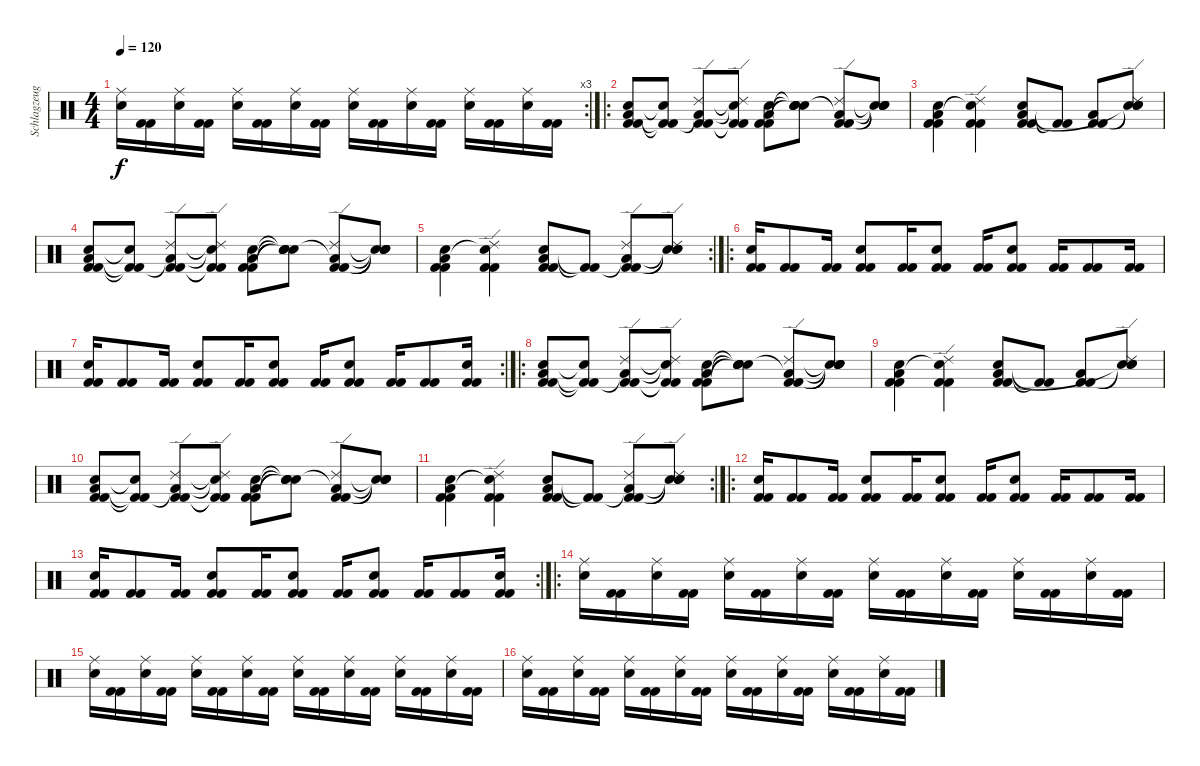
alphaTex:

\track ("Schlagzeug" "Schlagzeug") {instrument percussion}
\staff {score}
\articulation defaults
\rc 3
\ts (4 4)
\tempo 120
\clef neutral
\ks c
("Ride (middle)" "Snare (hit) 2").16{dy f} ("Kick (hit) 2" "Kick (hit) 2").16 ("Ride (middle)" "Snare (hit) 2").16 ("Kick (hit) 2" "Kick (hit) 2").16 ("Ride (middle)" "Snare (hit) 2").16 ("Kick (hit) 2" "Kick (hit) 2").16 ("Ride (middle)" "Snare (hit) 2").16 ("Kick (hit) 2" "Kick (hit) 2").16 ("Ride (middle)" "Snare (hit) 2").16 ("Kick (hit) 2" "Kick (hit) 2").16 ("Ride (middle)" "Snare (hit) 2").16 ("Kick (hit) 2" "Kick (hit) 2").16 ("Ride (middle)" "Snare (hit) 2").16 ("Kick (hit) 2" "Kick (hit) 2").16 ("Ride (middle)" "Snare (hit) 2").16 ("Kick (hit) 2" "Kick (hit) 2").16 |
\ro
("Snare (hit) 2" "Low Floor Tom (hit)" "Kick (hit) 2" "Kick (hit) 2").8 ("Snare (hit)"{t} "Kick (hit) 2"{t} "Kick (hit) 2"{t}).8 ("Ride (edge) 2" "Low Floor Tom (hit)"{t} "Kick (hit) 2" "Kick (hit) 2").8 ("Ride (edge) 2"{t} "Snare (hit)"{t} "Kick (hit) 2"{t} "Kick (hit) 2"{t}).8 ("Snare (hit) 2" "Low Floor Tom (hit)" "Kick (hit) 2" "Kick (hit) 2").8 ("Snare (hit)"{t} "Snare (hit)"{t} "Snare (hit)"{t} "Snare (hit)"{t}).8 ("Ride (edge) 2" "Low Floor Tom (hit)"{t} "Kick (hit) 2" "Kick (hit) 2").8 ("Snare (hit)"{t} "Snare (hit)"{t} "Snare (hit)"{t} "Snare (hit)"{t}).8 |
("Snare (hit) 2" "Low Floor Tom (hit)" "Kick (hit) 2" "Kick (hit) 2").4 ("Ride (edge) 2" "Snare (hit)"{t} "Kick (hit) 2" "Kick (hit) 2").4 ("Snare (hit) 2" "Low Floor Tom (hit)" "Kick (hit) 2" "Kick (hit) 2").8 ("Kick (hit) 2"{t} "Kick (hit) 2"{t}).8 ("Low Floor Tom (hit)" "Kick (hit) 2" "Kick (hit) 2").8 ("Ride (edge) 2" "Snare (hit)"{t} "Snare (hit)"{t} "Snare (hit)"{t}).8 |
("Snare (hit) 2" "Low Floor Tom (hit)" "Kick (hit) 2" "Kick (hit) 2").8 ("Snare (hit)"{t} "Kick (hit) 2"{t} "Kick (hit) 2"{t}).8 ("Ride (edge) 2" "Low Floor Tom (hit)"{t} "Kick (hit) 2" "Kick (hit) 2").8 ("Ride (edge) 2"{t} "Snare (hit)"{t} "Kick (hit) 2"{t} "Kick (hit) 2"{t}).8 ("Snare (hit) 2" "Low Floor Tom (hit)" "Kick (hit) 2" "Kick (hit) 2").8 ("Snare (hit)"{t} "Snare (hit)"{t} "Snare (hit)"{t} "Snare (hit)"{t}).8 ("Ride (edge) 2" "Low Floor Tom (hit)"{t} "Kick (hit) 2" "Kick (hit) 2").8 ("Snare (hit)"{t} "Snare (hit)"{t} "Snare (hit)"{t} "Snare (hit)"{t}).8 |
\rc 2
("Snare (hit) 2" "Low Floor Tom (hit)" "Kick (hit) 2" "Kick (hit) 2").4 ("Ride (edge) 2" "Snare (hit)"{t} "Kick (hit) 2" "Kick (hit) 2").4 ("Snare (hit) 2" "Low Floor Tom (hit)" "Kick (hit) 2" "Kick (hit) 2").8 ("Kick (hit) 2"{t} "Kick (hit) 2"{t}).8 ("Ride (edge) 2" "Low Floor Tom (hit)"{t} "Kick (hit) 2" "Kick (hit) 2").8 ("Ride (edge) 2" "Snare (hit)"{t} "Snare (hit)"{t} "Snare (hit)"{t}).8 |
\ro
("Snare (hit) 2" "Kick (hit) 2" "Kick (hit) 2").16 ("Kick (hit) 2" "Kick (hit) 2").8 ("Kick (hit) 2" "Kick (hit) 2").16 ("Snare (hit) 2" "Kick (hit) 2" "Kick (hit) 2").8 ("Kick (hit) 2" "Kick (hit) 2").16 ("Snare (hit) 2" "Kick (hit) 2" "Kick (hit) 2").8 ("Kick (hit) 2" "Kick (hit) 2").16 ("Snare (hit) 2" "Kick (hit) 2" "Kick (hit) 2").8 ("Kick (hit) 2" "Kick (hit) 2").16 ("Kick (hit) 2" "Kick (hit) 2").8 ("Kick (hit) 2" "Kick (hit) 2").16 |
\rc 2
("Snare (hit) 2" "Kick (hit) 2" "Kick (hit) 2").16 ("Kick (hit) 2" "Kick (hit) 2").8 ("Kick (hit) 2" "Kick (hit) 2").16 ("Snare (hit) 2" "Kick (hit) 2" "Kick (hit) 2").8 ("Kick (hit) 2" "Kick (hit) 2").16 ("Snare (hit) 2" "Kick (hit) 2" "Kick (hit) 2").8 ("Kick (hit) 2" "Kick (hit) 2").16 ("Snare (hit) 2" "Kick (hit) 2" "Kick (hit) 2").8 ("Kick (hit) 2" "Kick (hit) 2").16 ("Kick (hit) 2" "Kick (hit) 2").8 ("Snare (hit) 2" "Kick (hit) 2" "Kick (hit) 2").16 |
\ro
("Snare (hit) 2" "Low Floor Tom (hit)" "Kick (hit) 2" "Kick (hit) 2").8 ("Snare (hit)"{t} "Kick (hit) 2"{t} "Kick (hit) 2"{t}).8 ("Ride (edge) 2" "Low Floor Tom (hit)"{t} "Kick (hit) 2" "Kick (hit) 2").8 ("Ride (edge) 2"{t} "Snare (hit)"{t} "Kick (hit) 2"{t} "Kick (hit) 2"{t}).8 ("Snare (hit) 2" "Low Floor Tom (hit)" "Kick (hit) 2" "Kick (hit) 2").8 ("Snare (hit)"{t} "Snare (hit)"{t} "Snare (hit)"{t} "Snare (hit)"{t}).8 ("Ride (edge) 2" "Low Floor Tom (hit)"{t} "Kick (hit) 2" "Kick (hit) 2").8 ("Snare (hit)"{t} "Snare (hit)"{t} "Snare (hit)"{t} "Snare (hit)"{t}).8 |
("Snare (hit) 2" "Low Floor Tom (hit)" "Kick (hit) 2" "Kick (hit) 2").4 ("Ride (edge) 2" "Snare (hit)"{t} "Kick (hit) 2" "Kick (hit) 2").4 ("Snare (hit) 2" "Low Floor Tom (hit)" "Kick (hit) 2" "Kick (hit) 2").8 ("Kick (hit) 2"{t} "Kick (hit) 2"{t}).8 ("Low Floor Tom (hit)" "Kick (hit) 2" "Kick (hit) 2").8 ("Ride (edge) 2" "Snare (hit)"{t} "Snare (hit)"{t} "Snare (hit)"{t}).8 |
("Snare (hit) 2" "Low Floor Tom (hit)" "Kick (hit) 2" "Kick (hit) 2").8 ("Snare (hit)"{t} "Kick (hit) 2"{t} "Kick (hit) 2"{t}).8 ("Ride (edge) 2" "Low Floor Tom (hit)"{t} "Kick (hit) 2" "Kick (hit) 2").8 ("Ride (edge) 2"{t} "Snare (hit)"{t} "Kick (hit) 2"{t} "Kick (hit) 2"{t}).8 ("Snare (hit) 2" "Low Floor Tom (hit)" "Kick (hit) 2" "Kick (hit) 2").8 ("Snare (hit)"{t} "Snare (hit)"{t} "Snare (hit)"{t} "Snare (hit)"{t}).8 ("Ride (edge) 2" "Low Floor Tom (hit)"{t} "Kick (hit) 2" "Kick (hit) 2").8 ("Snare (hit)"{t} "Snare (hit)"{t} "Snare (hit)"{t} "Snare (hit)"{t}).8 |
\rc 2
("Snare (hit) 2" "Low Floor Tom (hit)" "Kick (hit) 2" "Kick (hit) 2").4 ("Ride (edge) 2" "Snare (hit)"{t} "Kick (hit) 2" "Kick (hit) 2").4 ("Snare (hit) 2" "Low Floor Tom (hit)" "Kick (hit) 2" "Kick (hit) 2").8 ("Kick (hit) 2"{t} "Kick (hit) 2"{t}).8 ("Ride (edge) 2" "Low Floor Tom (hit)"{t} "Kick (hit) 2" "Kick (hit) 2").8 ("Ride (edge) 2" "Snare (hit)"{t} "Snare (hit)"{t} "Snare (hit)"{t}).8 |
\ro
("Snare (hit) 2" "Kick (hit) 2" "Kick (hit) 2").16 ("Kick (hit) 2" "Kick (hit) 2").8 ("Kick (hit) 2" "Kick (hit) 2").16 ("Snare (hit) 2" "Kick (hit) 2" "Kick (hit) 2").8 ("Kick (hit) 2" "Kick (hit) 2").16 ("Snare (hit) 2" "Kick (hit) 2" "Kick (hit) 2").8 ("Kick (hit) 2" "Kick (hit) 2").16 ("Snare (hit) 2" "Kick (hit) 2" "Kick (hit) 2").8 ("Kick (hit) 2" "Kick (hit) 2").16 ("Kick (hit) 2" "Kick (hit) 2").8 ("Kick (hit) 2" "Kick (hit) 2").16 |
\rc 2
("Snare (hit) 2" "Kick (hit) 2" "Kick (hit) 2").16 ("Kick (hit) 2" "Kick (hit) 2").8 ("Kick (hit) 2" "Kick (hit) 2").16 ("Snare (hit) 2" "Kick (hit) 2" "Kick (hit) 2").8 ("Kick (hit) 2" "Kick (hit) 2").16 ("Snare (hit) 2" "Kick (hit) 2" "Kick (hit) 2").8 ("Kick (hit) 2" "Kick (hit) 2").16 ("Snare (hit) 2" "Kick (hit) 2" "Kick (hit) 2").8 ("Kick (hit) 2" "Kick (hit) 2").16 ("Kick (hit) 2" "Kick (hit) 2").8 ("Snare (hit) 2" "Kick (hit) 2" "Kick (hit) 2").16 |
\ro
("Ride (middle)" "Snare (hit) 2").16 ("Kick (hit) 2" "Kick (hit) 2").16 ("Ride (middle)" "Snare (hit) 2").16 ("Kick (hit) 2" "Kick (hit) 2").16 ("Ride (middle)" "Snare (hit) 2").16 ("Kick (hit) 2" "Kick (hit) 2").16 ("Ride (middle)" "Snare (hit) 2").16 ("Kick (hit) 2" "Kick (hit) 2").16 ("Ride (middle)" "Snare (hit) 2").16 ("Kick (hit) 2" "Kick (hit) 2").16 ("Ride (middle)" "Snare (hit) 2").16 ("Kick (hit) 2" "Kick (hit) 2").16 ("Ride (middle)" "Snare (hit) 2").16 ("Kick (hit) 2" "Kick (hit) 2").16 ("Ride (middle)" "Snare (hit) 2").16 ("Kick (hit) 2" "Kick (hit) 2").16 |
("Ride (middle)" "Snare (hit) 2").16 ("Kick (hit) 2" "Kick (hit) 2").16 ("Ride (middle)" "Snare (hit) 2").16 ("Kick (hit) 2" "Kick (hit) 2").16 ("Ride (middle)" "Snare (hit) 2").16 ("Kick (hit) 2" "Kick (hit) 2").16 ("Ride (middle)" "Snare (hit) 2").16 ("Kick (hit) 2" "Kick (hit) 2").16 ("Ride (middle)" "Snare (hit) 2").16 ("Kick (hit) 2" "Kick (hit) 2").16 ("Ride (middle)" "Snare (hit) 2").16 ("Kick (hit) 2" "Kick (hit) 2").16 ("Ride (middle)" "Snare (hit) 2").16 ("Kick (hit) 2" "Kick (hit) 2").16 ("Ride (middle)" "Snare (hit) 2").16 ("Kick (hit) 2" "Kick (hit) 2").16 |
("Ride (middle)" "Snare (hit) 2").16 ("Kick (hit) 2" "Kick (hit) 2").16 ("Ride (middle)" "Snare (hit) 2").16 ("Kick (hit) 2" "Kick (hit) 2").16 ("Ride (middle)" "Snare (hit) 2").16 ("Kick (hit) 2" "Kick (hit) 2").16 ("Ride (middle)" "Snare (hit) 2").16 ("Kick (hit) 2" "Kick (hit) 2").16 ("Ride (middle)" "Snare (hit) 2").16 ("Kick (hit) 2" "Kick (hit) 2").16 ("Ride (middle)" "Snare (hit) 2").16 ("Kick (hit) 2" "Kick (hit) 2").16 ("Ride (middle)" "Snare (hit) 2").16 ("Kick (hit) 2" "Kick (hit) 2").16 ("Ride (middle)" "Snare (hit) 2").16 ("Kick (hit) 2" "Kick (hit) 2").16
